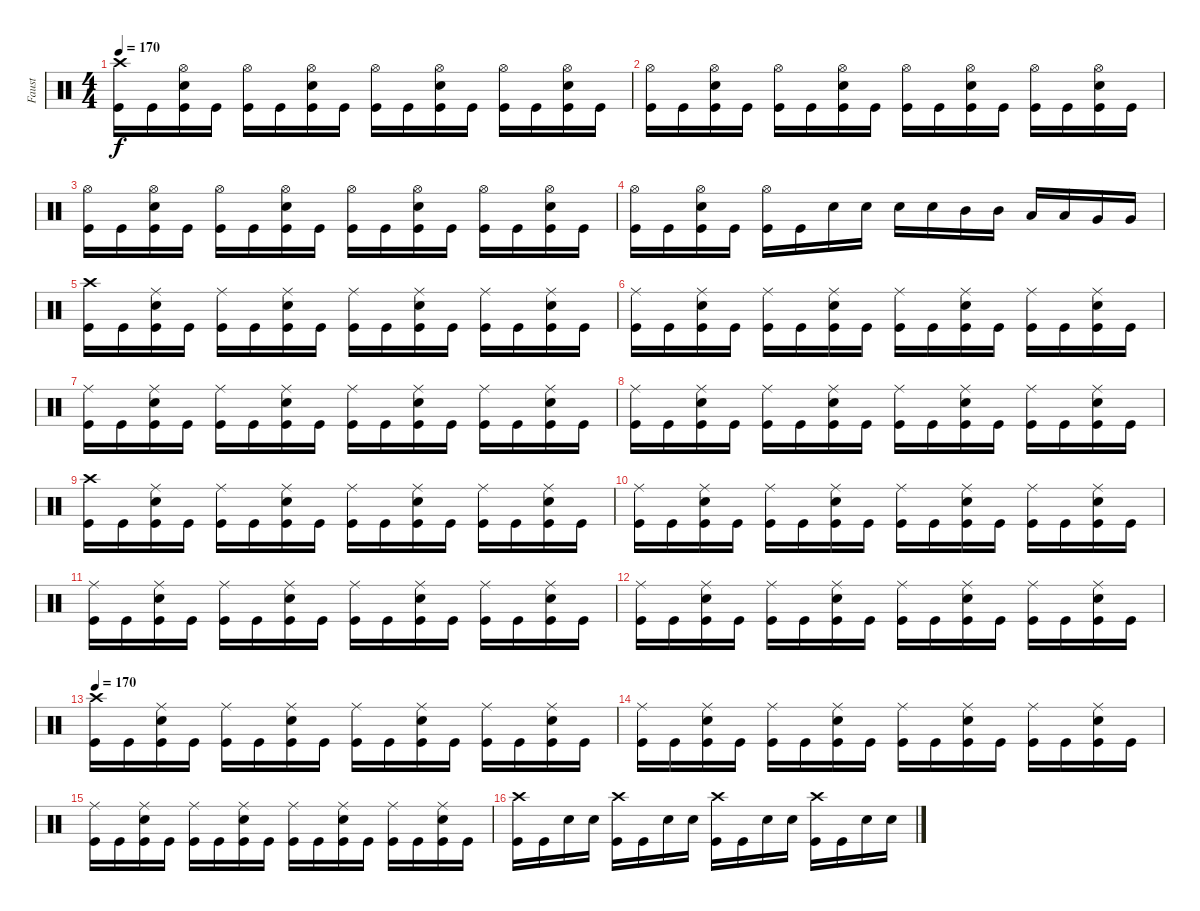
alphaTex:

\track ("Faust" "Faust") {instrument percussion}
\staff {score}
\articulation defaults
\ts (4 4)
\tempo 170
\clef neutral
\ks c
("Kick (hit)" "Crash high (hit)").16{dy f} "Kick (hit)".16 ("Kick (hit)" "Snare (hit) 2" "Hi-Hat (open)").16 "Kick (hit)".16 ("Kick (hit)" "Hi-Hat (open)").16 "Kick (hit)".16 ("Kick (hit)" "Snare (hit) 2" "Hi-Hat (open)").16 "Kick (hit)".16 ("Kick (hit)" "Hi-Hat (open)").16 "Kick (hit)".16 ("Kick (hit)" "Snare (hit) 2" "Hi-Hat (open)").16 "Kick (hit)".16 ("Kick (hit)" "Hi-Hat (open)").16 "Kick (hit)".16 ("Kick (hit)" "Snare (hit) 2" "Hi-Hat (open)").16 "Kick (hit)".16 |
("Kick (hit)" "Hi-Hat (open)").16 "Kick (hit)".16 ("Kick (hit)" "Snare (hit) 2" "Hi-Hat (open)").16 "Kick (hit)".16 ("Kick (hit)" "Hi-Hat (open)").16 "Kick (hit)".16 ("Kick (hit)" "Snare (hit) 2" "Hi-Hat (open)").16 "Kick (hit)".16 ("Kick (hit)" "Hi-Hat (open)").16 "Kick (hit)".16 ("Kick (hit)" "Snare (hit) 2" "Hi-Hat (open)").16 "Kick (hit)".16 ("Kick (hit)" "Hi-Hat (open)").16 "Kick (hit)".16 ("Kick (hit)" "Snare (hit) 2" "Hi-Hat (open)").16 "Kick (hit)".16 |
("Kick (hit)" "Hi-Hat (open)").16 "Kick (hit)".16 ("Kick (hit)" "Snare (hit) 2" "Hi-Hat (open)").16 "Kick (hit)".16 ("Kick (hit)" "Hi-Hat (open)").16 "Kick (hit)".16 ("Kick (hit)" "Snare (hit) 2" "Hi-Hat (open)").16 "Kick (hit)".16 ("Kick (hit)" "Hi-Hat (open)").16 "Kick (hit)".16 ("Kick (hit)" "Snare (hit) 2" "Hi-Hat (open)").16 "Kick (hit)".16 ("Kick (hit)" "Hi-Hat (open)").16 "Kick (hit)".16 ("Kick (hit)" "Snare (hit) 2" "Hi-Hat (open)").16 "Kick (hit)".16 |
("Kick (hit)" "Hi-Hat (open)").16 "Kick (hit)".16 ("Kick (hit)" "Snare (hit) 2" "Hi-Hat (open)").16 "Kick (hit)".16 ("Kick (hit)" "Hi-Hat (open)").16 "Kick (hit)".16 "Snare (hit) 2".16 "Snare (hit) 2".16 "Snare (hit) 2".16 "Snare (hit) 2".16 "Mid Tom (hit)".16 "Mid Tom (hit)".16 "Low Tom (hit)".16 "Low Tom (hit)".16 "Very Low Tom (hit)".16 "Very Low Tom (hit)".16 |
("Kick (hit)" "Crash high (hit)").16 "Kick (hit)".16 ("Kick (hit)" "Snare (hit) 2" "Ride (middle)").16 "Kick (hit)".16 ("Kick (hit)" "Ride (middle)").16 "Kick (hit)".16 ("Kick (hit)" "Snare (hit) 2" "Ride (middle)").16 "Kick (hit)".16 ("Kick (hit)" "Ride (middle)").16 "Kick (hit)".16 ("Kick (hit)" "Snare (hit) 2" "Ride (middle)").16 "Kick (hit)".16 ("Kick (hit)" "Ride (middle)").16 "Kick (hit)".16 ("Kick (hit)" "Snare (hit) 2" "Ride (middle)").16 "Kick (hit)".16 |
("Kick (hit)" "Ride (middle)").16 "Kick (hit)".16 ("Kick (hit)" "Snare (hit) 2" "Ride (middle)").16 "Kick (hit)".16 ("Kick (hit)" "Ride (middle)").16 "Kick (hit)".16 ("Kick (hit)" "Snare (hit) 2" "Ride (middle)").16 "Kick (hit)".16 ("Kick (hit)" "Ride (middle)").16 "Kick (hit)".16 ("Kick (hit)" "Snare (hit) 2" "Ride (middle)").16 "Kick (hit)".16 ("Kick (hit)" "Ride (middle)").16 "Kick (hit)".16 ("Kick (hit)" "Snare (hit) 2" "Ride (middle)").16 "Kick (hit)".16 |
("Kick (hit)" "Ride (middle)").16 "Kick (hit)".16 ("Kick (hit)" "Snare (hit) 2" "Ride (middle)").16 "Kick (hit)".16 ("Kick (hit)" "Ride (middle)").16 "Kick (hit)".16 ("Kick (hit)" "Snare (hit) 2" "Ride (middle)").16 "Kick (hit)".16 ("Kick (hit)" "Ride (middle)").16 "Kick (hit)".16 ("Kick (hit)" "Snare (hit) 2" "Ride (middle)").16 "Kick (hit)".16 ("Kick (hit)" "Ride (middle)").16 "Kick (hit)".16 ("Kick (hit)" "Snare (hit) 2" "Ride (middle)").16 "Kick (hit)".16 |
("Kick (hit)" "Ride (middle)").16 "Kick (hit)".16 ("Kick (hit)" "Snare (hit) 2" "Ride (middle)").16 "Kick (hit)".16 ("Kick (hit)" "Ride (middle)").16 "Kick (hit)".16 ("Kick (hit)" "Snare (hit) 2" "Ride (middle)").16 "Kick (hit)".16 ("Kick (hit)" "Ride (middle)").16 "Kick (hit)".16 ("Kick (hit)" "Snare (hit) 2" "Ride (middle)").16 "Kick (hit)".16 ("Kick (hit)" "Ride (middle)").16 "Kick (hit)".16 ("Kick (hit)" "Snare (hit) 2" "Ride (middle)").16 "Kick (hit)".16 |
("Kick (hit)" "Crash high (hit)").16 "Kick (hit)".16 ("Kick (hit)" "Snare (hit) 2" "Ride (middle)").16 "Kick (hit)".16 ("Kick (hit)" "Ride (middle)").16 "Kick (hit)".16 ("Kick (hit)" "Snare (hit) 2" "Ride (middle)").16 "Kick (hit)".16 ("Kick (hit)" "Ride (middle)").16 "Kick (hit)".16 ("Kick (hit)" "Snare (hit) 2" "Ride (middle)").16 "Kick (hit)".16 ("Kick (hit)" "Ride (middle)").16 "Kick (hit)".16 ("Kick (hit)" "Snare (hit) 2" "Ride (middle)").16 "Kick (hit)".16 |
("Kick (hit)" "Ride (middle)").16 "Kick (hit)".16 ("Kick (hit)" "Snare (hit) 2" "Ride (middle)").16 "Kick (hit)".16 ("Kick (hit)" "Ride (middle)").16 "Kick (hit)".16 ("Kick (hit)" "Snare (hit) 2" "Ride (middle)").16 "Kick (hit)".16 ("Kick (hit)" "Ride (middle)").16 "Kick (hit)".16 ("Kick (hit)" "Snare (hit) 2" "Ride (middle)").16 "Kick (hit)".16 ("Kick (hit)" "Ride (middle)").16 "Kick (hit)".16 ("Kick (hit)" "Snare (hit) 2" "Ride (middle)").16 "Kick (hit)".16 |
("Kick (hit)" "Ride (middle)").16 "Kick (hit)".16 ("Kick (hit)" "Snare (hit) 2" "Ride (middle)").16 "Kick (hit)".16 ("Kick (hit)" "Ride (middle)").16 "Kick (hit)".16 ("Kick (hit)" "Snare (hit) 2" "Ride (middle)").16 "Kick (hit)".16 ("Kick (hit)" "Ride (middle)").16 "Kick (hit)".16 ("Kick (hit)" "Snare (hit) 2" "Ride (middle)").16 "Kick (hit)".16 ("Kick (hit)" "Ride (middle)").16 "Kick (hit)".16 ("Kick (hit)" "Snare (hit) 2" "Ride (middle)").16 "Kick (hit)".16 |
("Kick (hit)" "Ride (middle)").16 "Kick (hit)".16 ("Kick (hit)" "Snare (hit) 2" "Ride (middle)").16 "Kick (hit)".16 ("Kick (hit)" "Ride (middle)").16 "Kick (hit)".16 ("Kick (hit)" "Snare (hit) 2" "Ride (middle)").16 "Kick (hit)".16 ("Kick (hit)" "Ride (middle)").16 "Kick (hit)".16 ("Kick (hit)" "Snare (hit) 2" "Ride (middle)").16 "Kick (hit)".16 ("Kick (hit)" "Ride (middle)").16 "Kick (hit)".16 ("Kick (hit)" "Snare (hit) 2" "Ride (middle)").16 "Kick (hit)".16 |
\tempo 170
("Kick (hit)" "Crash high (hit)").16 "Kick (hit)".16 ("Kick (hit)" "Snare (hit) 2" "Ride (middle)").16 "Kick (hit)".16 ("Kick (hit)" "Ride (middle)").16 "Kick (hit)".16 ("Kick (hit)" "Snare (hit) 2" "Ride (middle)").16 "Kick (hit)".16 ("Kick (hit)" "Ride (middle)").16 "Kick (hit)".16 ("Kick (hit)" "Snare (hit) 2" "Ride (middle)").16 "Kick (hit)".16 ("Kick (hit)" "Ride (middle)").16 "Kick (hit)".16 ("Kick (hit)" "Snare (hit) 2" "Ride (middle)").16 "Kick (hit)".16 |
("Kick (hit)" "Ride (middle)").16 "Kick (hit)".16 ("Kick (hit)" "Snare (hit) 2" "Ride (middle)").16 "Kick (hit)".16 ("Kick (hit)" "Ride (middle)").16 "Kick (hit)".16 ("Kick (hit)" "Snare (hit) 2" "Ride (middle)").16 "Kick (hit)".16 ("Kick (hit)" "Ride (middle)").16 "Kick (hit)".16 ("Kick (hit)" "Snare (hit) 2" "Ride (middle)").16 "Kick (hit)".16 ("Kick (hit)" "Ride (middle)").16 "Kick (hit)".16 ("Kick (hit)" "Snare (hit) 2" "Ride (middle)").16 "Kick (hit)".16 |
("Kick (hit)" "Ride (middle)").16 "Kick (hit)".16 ("Kick (hit)" "Snare (hit) 2" "Ride (middle)").16 "Kick (hit)".16 ("Kick (hit)" "Ride (middle)").16 "Kick (hit)".16 ("Kick (hit)" "Snare (hit) 2" "Ride (middle)").16 "Kick (hit)".16 ("Kick (hit)" "Ride (middle)").16 "Kick (hit)".16 ("Kick (hit)" "Snare (hit) 2" "Ride (middle)").16 "Kick (hit)".16 ("Kick (hit)" "Ride (middle)").16 "Kick (hit)".16 ("Kick (hit)" "Snare (hit) 2" "Ride (middle)").16 "Kick (hit)".16 |
("Kick (hit)" "Crash high (hit)").16 "Kick (hit)".16 "Snare (hit) 2".16 "Snare (hit) 2".16 ("Kick (hit)" "Crash high (hit)").16 "Kick (hit)".16 "Snare (hit) 2".16 "Snare (hit) 2".16 ("Kick (hit)" "Crash high (hit)").16 "Kick (hit)".16 "Snare (hit) 2".16 "Snare (hit) 2".16 ("Kick (hit)" "Crash high (hit)").16 "Kick (hit)".16 "Snare (hit) 2".16 "Snare (hit) 2".16
